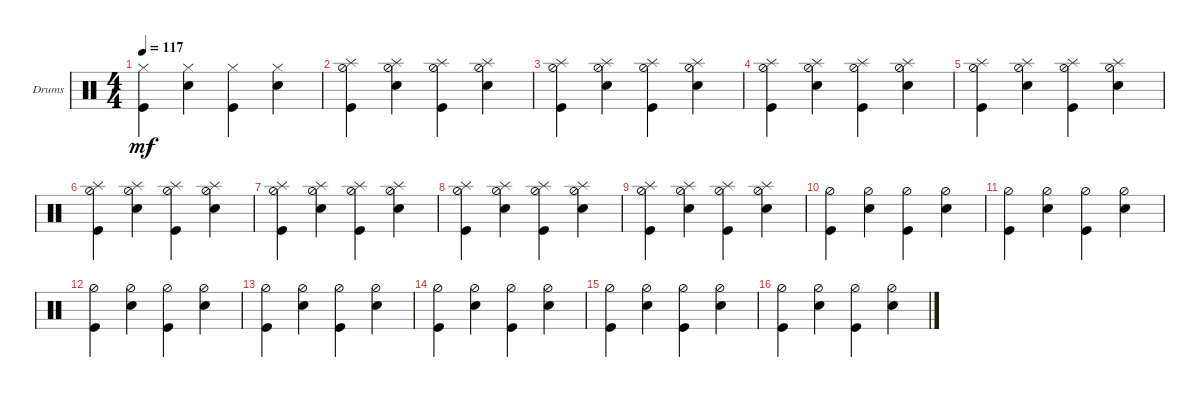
\defaultSystemsLayout 4
\bracketExtendMode groupsimilarinstruments
\firstSystemTrackNameOrientation horizontal
\otherSystemsTrackNameOrientation horizontal
\track ("Drumkit" "Drums") {instrument percussion}
\staff {score}
\articulation defaults
\ts (4 4)
\tempo 117
\clef neutral
\ks c
("Kick (hit)" "Hi-Hat (closed)").4{dy mf} ("Snare (hit) 2" "Hi-Hat (closed)").4 ("Kick (hit)" "Hi-Hat (closed)").4 ("Snare (hit) 2" "Hi-Hat (closed)").4 |
("Kick (hit)" "Hi-Hat (half)" "Splash (hit)").4 ("Snare (hit) 2" "Hi-Hat (half)" "Splash (hit)").4 ("Kick (hit)" "Hi-Hat (half)" "Splash (hit)").4 ("Snare (hit) 2" "Hi-Hat (half)" "Splash (hit)").4 |
("Kick (hit)" "Hi-Hat (half)" "Splash (hit)").4 ("Snare (hit) 2" "Hi-Hat (half)" "Splash (hit)").4 ("Kick (hit)" "Hi-Hat (half)" "Splash (hit)").4 ("Snare (hit) 2" "Hi-Hat (half)" "Splash (hit)").4 |
("Kick (hit)" "Hi-Hat (half)" "Splash (hit)").4 ("Snare (hit) 2" "Hi-Hat (half)" "Splash (hit)").4 ("Kick (hit)" "Hi-Hat (half)" "Splash (hit)").4 ("Snare (hit) 2" "Hi-Hat (half)" "Splash (hit)").4 |
("Kick (hit)" "Hi-Hat (half)" "Splash (hit)").4 ("Snare (hit) 2" "Hi-Hat (half)" "Splash (hit)").4 ("Kick (hit)" "Hi-Hat (half)" "Splash (hit)").4 ("Snare (hit) 2" "Hi-Hat (half)" "Splash (hit)").4 |
("Kick (hit)" "Hi-Hat (half)" "Splash (hit)").4 ("Snare (hit) 2" "Hi-Hat (half)" "Splash (hit)").4 ("Kick (hit)" "Hi-Hat (half)" "Splash (hit)").4 ("Snare (hit) 2" "Hi-Hat (half)" "Splash (hit)").4 |
("Kick (hit)" "Hi-Hat (half)" "Splash (hit)").4 ("Snare (hit) 2" "Hi-Hat (half)" "Splash (hit)").4 ("Kick (hit)" "Hi-Hat (half)" "Splash (hit)").4 ("Snare (hit) 2" "Hi-Hat (half)" "Splash (hit)").4 |
("Kick (hit)" "Hi-Hat (half)" "Splash (hit)").4 ("Snare (hit) 2" "Hi-Hat (half)" "Splash (hit)").4 ("Kick (hit)" "Hi-Hat (half)" "Splash (hit)").4 ("Snare (hit) 2" "Hi-Hat (half)" "Splash (hit)").4 |
("Kick (hit)" "Hi-Hat (half)" "Splash (hit)").4 ("Snare (hit) 2" "Hi-Hat (half)" "Splash (hit)").4 ("Kick (hit)" "Hi-Hat (half)" "Splash (hit)").4 ("Snare (hit) 2" "Hi-Hat (half)" "Splash (hit)").4 |
("Kick (hit)" "Hi-Hat (half)").4 ("Snare (hit) 2" "Hi-Hat (half)").4 ("Kick (hit)" "Hi-Hat (half)").4 ("Snare (hit) 2" "Hi-Hat (half)").4 |
("Kick (hit)" "Hi-Hat (half)").4 ("Snare (hit) 2" "Hi-Hat (half)").4 ("Kick (hit)" "Hi-Hat (half)").4 ("Snare (hit) 2" "Hi-Hat (half)").4 |
("Kick (hit)" "Hi-Hat (half)").4 ("Snare (hit) 2" "Hi-Hat (half)").4 ("Kick (hit)" "Hi-Hat (half)").4 ("Snare (hit) 2" "Hi-Hat (half)").4 |
("Kick (hit)" "Hi-Hat (half)").4 ("Snare (hit) 2" "Hi-Hat (half)").4 ("Kick (hit)" "Hi-Hat (half)").4 ("Snare (hit) 2" "Hi-Hat (half)").4 |
("Kick (hit)" "Hi-Hat (half)").4 ("Snare (hit) 2" "Hi-Hat (half)").4 ("Kick (hit)" "Hi-Hat (half)").4 ("Snare (hit) 2" "Hi-Hat (half)").4 |
("Kick (hit)" "Hi-Hat (half)").4 ("Snare (hit) 2" "Hi-Hat (half)").4 ("Kick (hit)" "Hi-Hat (half)").4 ("Snare (hit) 2" "Hi-Hat (half)").4 |
("Kick (hit)" "Hi-Hat (half)").4 ("Snare (hit) 2" "Hi-Hat (half)").4 ("Kick (hit)" "Hi-Hat (half)").4 ("Snare (hit) 2" "Hi-Hat (half)").4
